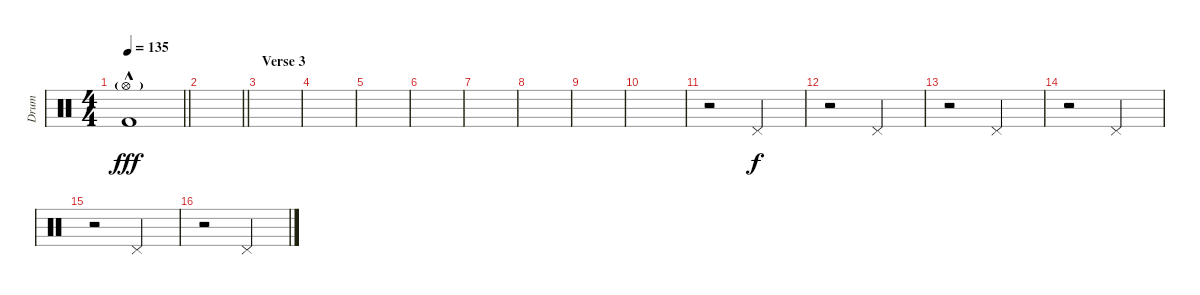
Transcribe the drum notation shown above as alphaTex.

\track ("Drum" "Drum") {instrument percussion}
\staff {score}
\articulation defaults
\ts (4 4)
\tempo 135
\clef neutral
\barLineRight lightlight
\ks c
("Hi-Hat (open)"{g} "Kick (hit) 2"{hac}).1{dy fff} |
\barLineRight lightlight
|
\section ("" "Verse 3")
|
|
|
|
|
|
|
|
r.2 "Pedal Hi-Hat (hit)".2{dy f} |
r.2 "Pedal Hi-Hat (hit)".2 |
r.2 "Pedal Hi-Hat (hit)".2 |
r.2 "Pedal Hi-Hat (hit)".2 |
r.2 "Pedal Hi-Hat (hit)".2 |
r.2 "Pedal Hi-Hat (hit)".2
